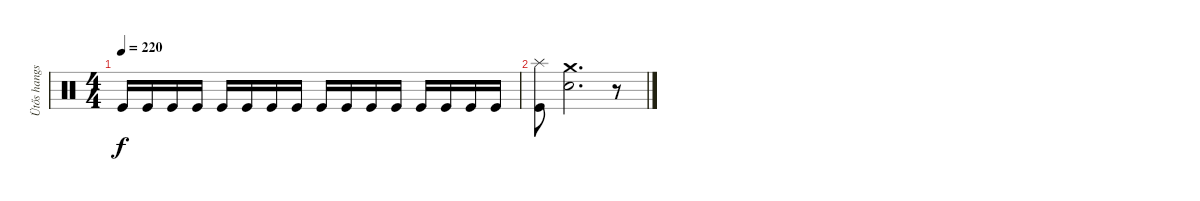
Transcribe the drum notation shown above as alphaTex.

\track ("Ütős hangszer" "Ütős hangs") {instrument percussion}
\staff {score}
\articulation defaults
\ts (4 4)
\tempo 220
\clef neutral
\ks c "Kick (hit)".16{dy f} "Kick (hit)".16 "Kick (hit)".16 "Kick (hit)".16 "Kick (hit)".16 "Kick (hit)".16 "Kick (hit)".16 "Kick (hit)".16 "Kick (hit)".16 "Kick (hit)".16 "Kick (hit)".16 "Kick (hit)".16 "Kick (hit)".16 "Kick (hit)".16 "Kick (hit)".16 "Kick (hit)".16
|
("Splash (hit)" "Kick (hit)").8 ("Crash medium (hit)" "Snare (hit) 2").2{d} r.8
